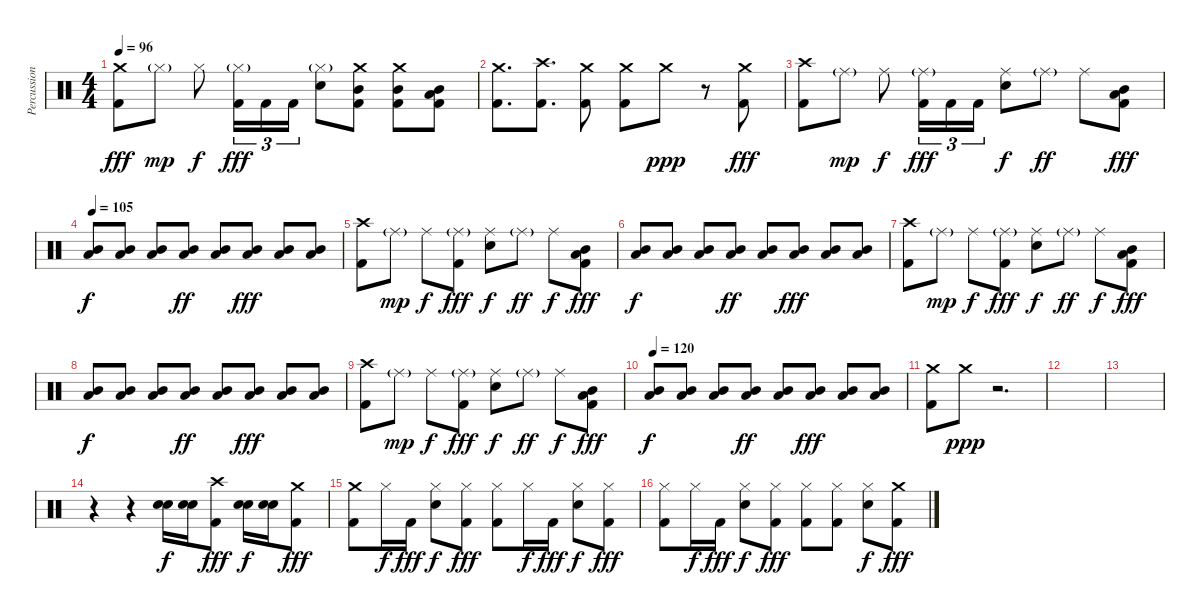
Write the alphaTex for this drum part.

\track ("Percussion" "Percussion") {instrument percussion}
\staff {score}
\articulation defaults
\ts (4 4)
\tempo 96
\clef neutral
\ks c
("Crash medium (hit)" "Kick (hit) 2").8{dy fff} "Hi-Hat (closed)"{g}.8{dy mp} "Hi-Hat (closed)".8{dy f} ("Hi-Hat (closed)"{g} "Kick (hit) 2").16{tu (3 2) dy fff} "Kick (hit) 2".16{tu (3 2)} "Kick (hit) 2".16{tu (3 2)} ("Hi-Hat (closed)"{g} "Electric Snare (hit)").8 ("Crash medium (hit)" "Mid Tom (hit)" "Kick (hit) 2").8 ("Crash medium (hit)" "Mid Tom (hit)" "Kick (hit) 2").8 ("Mid Tom (hit)" "Low Tom (hit)" "Kick (hit) 2").8 |
("Crash medium (hit)" "Kick (hit) 2").8{d} ("Crash high (hit)" "Kick (hit) 2").8{d} ("Crash medium (hit)" "Kick (hit) 2").8 ("Crash medium (hit)" "Kick (hit) 2").8 "Crash medium (hit)".8{dy ppp} r.8 ("Crash medium (hit)" "Kick (hit) 2").8{dy fff} |
("Crash high (hit)" "Kick (hit) 2").8 "Ride (middle)"{g}.8{dy mp} "Ride (middle)".8{dy f} ("Ride (middle)"{g} "Kick (hit) 2").16{tu (3 2) dy fff} "Kick (hit) 2".16{tu (3 2)} "Kick (hit) 2".16{tu (3 2)} ("Ride (middle)" "Electric Snare (hit)").8{dy f} "Ride (middle)"{g}.8{dy ff} "Ride (middle)".8 ("Mid Tom (hit)" "Low Tom (hit)" "Kick (hit) 2").8{dy fff} |
\tempo 105
("Mid Tom (hit)" "Low Tom (hit)").8{dy f} ("Mid Tom (hit)" "Low Tom (hit)").8 ("Mid Tom (hit)" "Low Tom (hit)").8 ("Mid Tom (hit)" "Low Tom (hit)").8{dy ff} ("Mid Tom (hit)" "Low Tom (hit)").8 ("Mid Tom (hit)" "Low Tom (hit)").8{dy fff} ("Mid Tom (hit)" "Low Tom (hit)").8 ("Mid Tom (hit)" "Low Tom (hit)").8 |
("Crash high (hit)" "Kick (hit) 2").8 "Ride (middle)"{g}.8{dy mp} "Ride (middle)".8{dy f} ("Ride (middle)"{g} "Kick (hit) 2").8{dy fff} ("Ride (middle)" "Electric Snare (hit)").8{dy f} "Ride (middle)"{g}.8{dy ff} "Ride (middle)".8{dy f} ("Mid Tom (hit)" "Low Tom (hit)" "Kick (hit) 2").8{dy fff} |
("Mid Tom (hit)" "Low Tom (hit)").8{dy f} ("Mid Tom (hit)" "Low Tom (hit)").8 ("Mid Tom (hit)" "Low Tom (hit)").8 ("Mid Tom (hit)" "Low Tom (hit)").8{dy ff} ("Mid Tom (hit)" "Low Tom (hit)").8 ("Mid Tom (hit)" "Low Tom (hit)").8{dy fff} ("Mid Tom (hit)" "Low Tom (hit)").8 ("Mid Tom (hit)" "Low Tom (hit)").8 |
("Crash high (hit)" "Kick (hit) 2").8 "Ride (middle)"{g}.8{dy mp} "Ride (middle)".8{dy f} ("Ride (middle)"{g} "Kick (hit) 2").8{dy fff} ("Ride (middle)" "Electric Snare (hit)").8{dy f} "Ride (middle)"{g}.8{dy ff} "Ride (middle)".8{dy f} ("Mid Tom (hit)" "Low Tom (hit)" "Kick (hit) 2").8{dy fff} |
("Mid Tom (hit)" "Low Tom (hit)").8{dy f} ("Mid Tom (hit)" "Low Tom (hit)").8 ("Mid Tom (hit)" "Low Tom (hit)").8 ("Mid Tom (hit)" "Low Tom (hit)").8{dy ff} ("Mid Tom (hit)" "Low Tom (hit)").8 ("Mid Tom (hit)" "Low Tom (hit)").8{dy fff} ("Mid Tom (hit)" "Low Tom (hit)").8 ("Mid Tom (hit)" "Low Tom (hit)").8 |
("Crash high (hit)" "Kick (hit) 2").8 "Ride (middle)"{g}.8{dy mp} "Ride (middle)".8{dy f} ("Ride (middle)"{g} "Kick (hit) 2").8{dy fff} ("Ride (middle)" "Electric Snare (hit)").8{dy f} "Ride (middle)"{g}.8{dy ff} "Ride (middle)".8{dy f} ("Mid Tom (hit)" "Low Tom (hit)" "Kick (hit) 2").8{dy fff} |
\tempo 120
("Mid Tom (hit)" "Low Tom (hit)").8{dy f} ("Mid Tom (hit)" "Low Tom (hit)").8 ("Mid Tom (hit)" "Low Tom (hit)").8 ("Mid Tom (hit)" "Low Tom (hit)").8{dy ff} ("Mid Tom (hit)" "Low Tom (hit)").8 ("Mid Tom (hit)" "Low Tom (hit)").8{dy fff} ("Mid Tom (hit)" "Low Tom (hit)").8 ("Mid Tom (hit)" "Low Tom (hit)").8 |
("Crash medium (hit)" "Kick (hit) 2").8 "Crash medium (hit)".8{dy ppp} r.2{d} |
|
|
r.4 r.4 ("Electric Snare (hit)" "Snare (hit) 2").16{dy f} ("Electric Snare (hit)" "Snare (hit) 2").16 ("Crash high (hit)" "Kick (hit) 2").8{dy fff} ("Electric Snare (hit)" "Snare (hit) 2").16{dy f} ("Electric Snare (hit)" "Snare (hit) 2").16 ("Crash medium (hit)" "Kick (hit) 2").8{dy fff} |
("Crash medium (hit)" "Kick (hit) 2").8 "Hi-Hat (closed)".16{dy f} "Kick (hit) 2".16{dy fff} ("Hi-Hat (closed)" "Electric Snare (hit)").8{dy f} ("Hi-Hat (closed)" "Kick (hit) 2").8{dy fff} ("Hi-Hat (closed)" "Kick (hit) 2").8 "Hi-Hat (closed)".16{dy f} "Kick (hit) 2".16{dy fff} ("Hi-Hat (closed)" "Electric Snare (hit)").8{dy f} ("Hi-Hat (closed)" "Kick (hit) 2").8{dy fff} |
("Hi-Hat (closed)" "Kick (hit) 2").8 "Hi-Hat (closed)".16{dy f} "Kick (hit) 2".16{dy fff} ("Hi-Hat (closed)" "Electric Snare (hit)").8{dy f} ("Hi-Hat (closed)" "Kick (hit) 2").8{dy fff} ("Hi-Hat (closed)" "Kick (hit) 2").8 ("Hi-Hat (closed)" "Kick (hit) 2").8 ("Hi-Hat (closed)" "Electric Snare (hit)").8{dy f} ("Crash medium (hit)" "Kick (hit) 2").8{dy fff}
